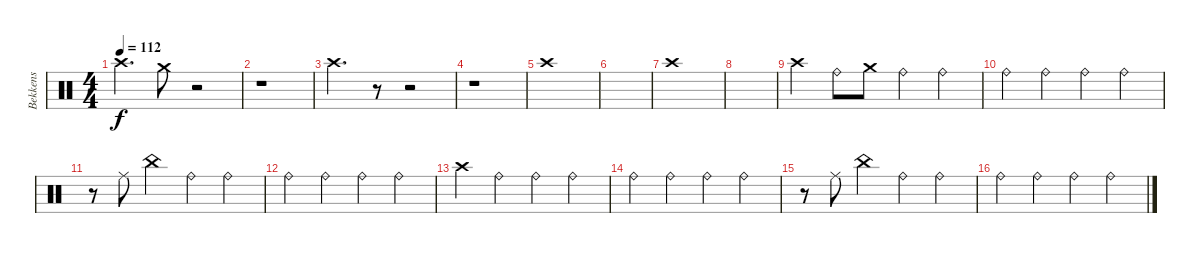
\track ("Bekkens" "Bekkens") {instrument percussion}
\staff {score}
\articulation defaults
\ts (4 4)
\tempo 112
\clef neutral
\ks c "Crash high (hit)".4{d dy f} "Crash medium (hit)".8
r.2 |
r.1 |
"Crash high (hit)".4{d} r.8 r.2 |
r.1 |
"Crash high (hit)".1 |
|
"Crash high (hit)".1 |
|
"Crash high (hit)".4 "Ride (bell)".8 "Crash medium (hit)".8 "Ride (bell)"{x}.4 "Ride (bell)"{x}.4 |
"Ride (bell)"{x}.4 "Ride (bell)"{x}.4 "Ride (bell)"{x}.4 "Ride (bell)"{x}.4 |
r.8 "Ride (middle)".8 "China (hit)".4 "Ride (bell)"{x}.4 "Ride (bell)"{x}.4 |
"Ride (bell)"{x}.4 "Ride (bell)"{x}.4 "Ride (bell)"{x}.4 "Ride (bell)"{x}.4 |
"Crash high (hit)".4 "Ride (bell)"{x}.4 "Ride (bell)"{x}.4 "Ride (bell)"{x}.4 |
"Ride (bell)"{x}.4 "Ride (bell)"{x}.4 "Ride (bell)"{x}.4 "Ride (bell)"{x}.4 |
r.8 "Ride (middle)".8 "China (hit)".4 "Ride (bell)"{x}.4 "Ride (bell)"{x}.4 |
"Ride (bell)"{x}.4 "Ride (bell)"{x}.4 "Ride (bell)"{x}.4 "Ride (bell)"{x}.4
